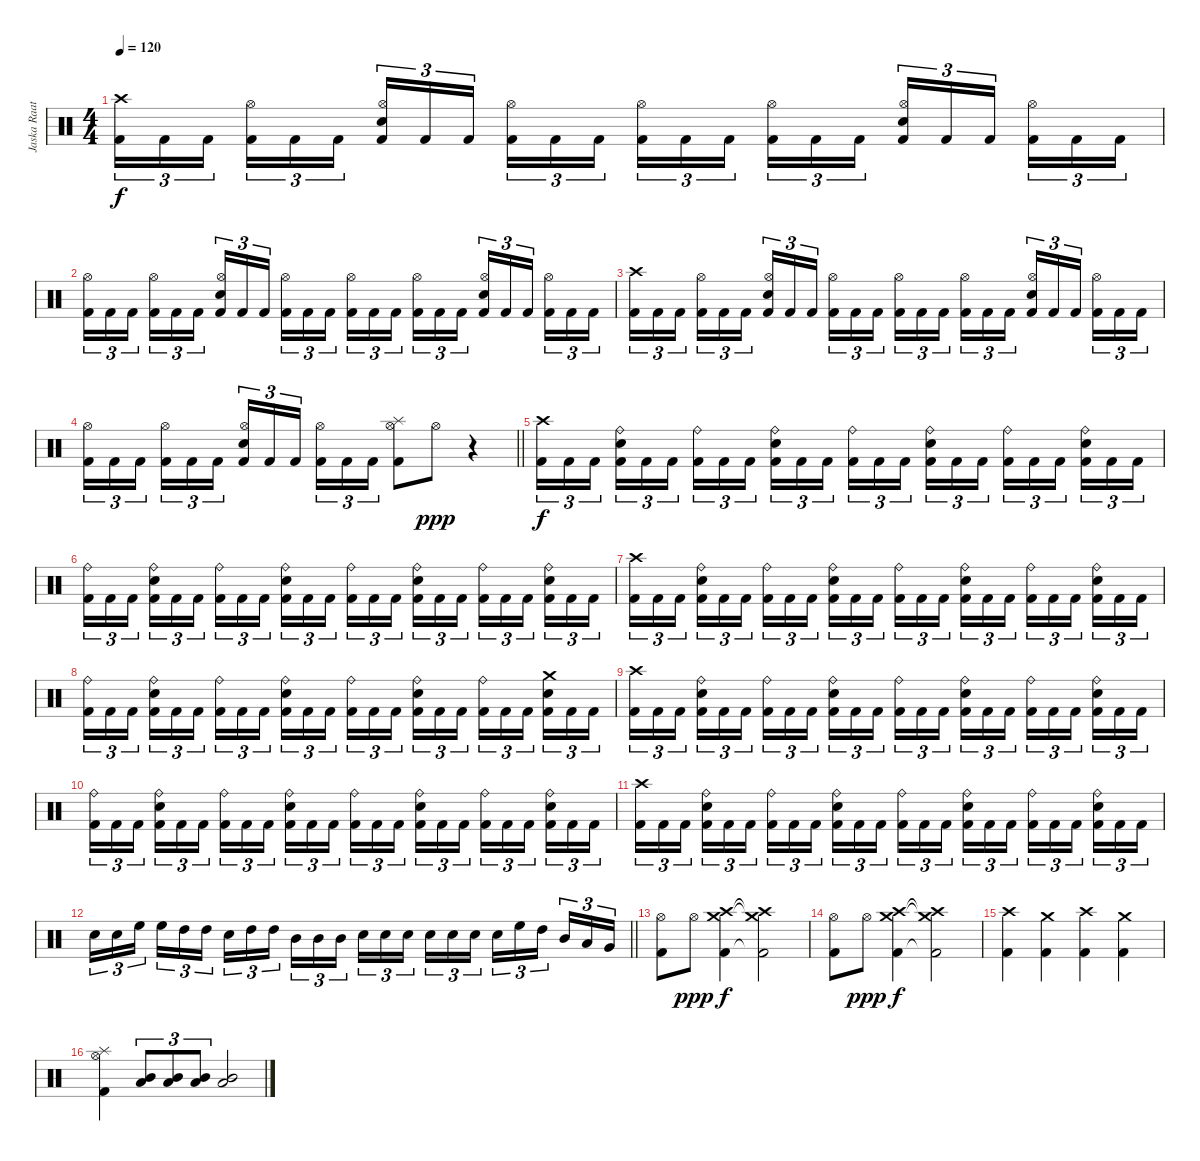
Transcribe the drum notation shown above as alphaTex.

\track ("Jaska Raatikainen" "Jaska Raat") {instrument percussion}
\staff {score}
\articulation defaults
\ts (4 4)
\tempo 120
\clef neutral
\ks c
("Crash high (hit)" "Kick (hit) 2").16{tu (3 2) dy f} "Kick (hit) 2".16{tu (3 2)} "Kick (hit) 2".16{tu (3 2)} ("Hi-Hat (open)" "Kick (hit) 2").16{tu (3 2)} "Kick (hit) 2".16{tu (3 2)} "Kick (hit) 2".16{tu (3 2)} ("Hi-Hat (open)" "Electric Snare (hit)" "Kick (hit) 2").16{tu (3 2)} "Kick (hit) 2".16{tu (3 2)} "Kick (hit) 2".16{tu (3 2)} ("Hi-Hat (open)" "Kick (hit) 2").16{tu (3 2)} "Kick (hit) 2".16{tu (3 2)} "Kick (hit) 2".16{tu (3 2)} ("Hi-Hat (open)" "Kick (hit) 2").16{tu (3 2)} "Kick (hit) 2".16{tu (3 2)} "Kick (hit) 2".16{tu (3 2)} ("Hi-Hat (open)" "Kick (hit) 2").16{tu (3 2)} "Kick (hit) 2".16{tu (3 2)} "Kick (hit) 2".16{tu (3 2)} ("Hi-Hat (open)" "Electric Snare (hit)" "Kick (hit) 2").16{tu (3 2)} "Kick (hit) 2".16{tu (3 2)} "Kick (hit) 2".16{tu (3 2)} ("Hi-Hat (open)" "Kick (hit) 2").16{tu (3 2)} "Kick (hit) 2".16{tu (3 2)} "Kick (hit) 2".16{tu (3 2)} |
("Hi-Hat (open)" "Kick (hit) 2").16{tu (3 2)} "Kick (hit) 2".16{tu (3 2)} "Kick (hit) 2".16{tu (3 2)} ("Hi-Hat (open)" "Kick (hit) 2").16{tu (3 2)} "Kick (hit) 2".16{tu (3 2)} "Kick (hit) 2".16{tu (3 2)} ("Hi-Hat (open)" "Electric Snare (hit)" "Kick (hit) 2").16{tu (3 2)} "Kick (hit) 2".16{tu (3 2)} "Kick (hit) 2".16{tu (3 2)} ("Hi-Hat (open)" "Kick (hit) 2").16{tu (3 2)} "Kick (hit) 2".16{tu (3 2)} "Kick (hit) 2".16{tu (3 2)} ("Hi-Hat (open)" "Kick (hit) 2").16{tu (3 2)} "Kick (hit) 2".16{tu (3 2)} "Kick (hit) 2".16{tu (3 2)} ("Hi-Hat (open)" "Kick (hit) 2").16{tu (3 2)} "Kick (hit) 2".16{tu (3 2)} "Kick (hit) 2".16{tu (3 2)} ("Hi-Hat (open)" "Electric Snare (hit)" "Kick (hit) 2").16{tu (3 2)} "Kick (hit) 2".16{tu (3 2)} "Kick (hit) 2".16{tu (3 2)} ("Hi-Hat (open)" "Kick (hit) 2").16{tu (3 2)} "Kick (hit) 2".16{tu (3 2)} "Kick (hit) 2".16{tu (3 2)} |
("Crash high (hit)" "Kick (hit) 2").16{tu (3 2)} "Kick (hit) 2".16{tu (3 2)} "Kick (hit) 2".16{tu (3 2)} ("Hi-Hat (open)" "Kick (hit) 2").16{tu (3 2)} "Kick (hit) 2".16{tu (3 2)} "Kick (hit) 2".16{tu (3 2)} ("Hi-Hat (open)" "Electric Snare (hit)" "Kick (hit) 2").16{tu (3 2)} "Kick (hit) 2".16{tu (3 2)} "Kick (hit) 2".16{tu (3 2)} ("Hi-Hat (open)" "Kick (hit) 2").16{tu (3 2)} "Kick (hit) 2".16{tu (3 2)} "Kick (hit) 2".16{tu (3 2)} ("Hi-Hat (open)" "Kick (hit) 2").16{tu (3 2)} "Kick (hit) 2".16{tu (3 2)} "Kick (hit) 2".16{tu (3 2)} ("Hi-Hat (open)" "Kick (hit) 2").16{tu (3 2)} "Kick (hit) 2".16{tu (3 2)} "Kick (hit) 2".16{tu (3 2)} ("Hi-Hat (open)" "Electric Snare (hit)" "Kick (hit) 2").16{tu (3 2)} "Kick (hit) 2".16{tu (3 2)} "Kick (hit) 2".16{tu (3 2)} ("Hi-Hat (open)" "Kick (hit) 2").16{tu (3 2)} "Kick (hit) 2".16{tu (3 2)} "Kick (hit) 2".16{tu (3 2)} |
\barLineRight lightlight
("Hi-Hat (open)" "Kick (hit) 2").16{tu (3 2)} "Kick (hit) 2".16{tu (3 2)} "Kick (hit) 2".16{tu (3 2)} ("Hi-Hat (open)" "Kick (hit) 2").16{tu (3 2)} "Kick (hit) 2".16{tu (3 2)} "Kick (hit) 2".16{tu (3 2)} ("Hi-Hat (open)" "Electric Snare (hit)" "Kick (hit) 2").16{tu (3 2)} "Kick (hit) 2".16{tu (3 2)} "Kick (hit) 2".16{tu (3 2)} ("Hi-Hat (open)" "Kick (hit) 2").16{tu (3 2)} "Kick (hit) 2".16{tu (3 2)} "Kick (hit) 2".16{tu (3 2)} ("Splash (hit)" "Hi-Hat (open)" "Kick (hit) 2").8 "Hi-Hat (open)".8{dy ppp} r.4 |
("Crash high (hit)" "Kick (hit) 2").16{tu (3 2) dy f} "Kick (hit) 2".16{tu (3 2)} "Kick (hit) 2".16{tu (3 2)} ("Ride (bell)" "Electric Snare (hit)" "Kick (hit) 2").16{tu (3 2)} "Kick (hit) 2".16{tu (3 2)} "Kick (hit) 2".16{tu (3 2)} ("Ride (bell)" "Kick (hit) 2").16{tu (3 2)} "Kick (hit) 2".16{tu (3 2)} "Kick (hit) 2".16{tu (3 2)} ("Ride (bell)" "Electric Snare (hit)" "Kick (hit) 2").16{tu (3 2)} "Kick (hit) 2".16{tu (3 2)} "Kick (hit) 2".16{tu (3 2)} ("Ride (bell)" "Kick (hit) 2").16{tu (3 2)} "Kick (hit) 2".16{tu (3 2)} "Kick (hit) 2".16{tu (3 2)} ("Ride (bell)" "Electric Snare (hit)" "Kick (hit) 2").16{tu (3 2)} "Kick (hit) 2".16{tu (3 2)} "Kick (hit) 2".16{tu (3 2)} ("Ride (bell)" "Kick (hit) 2").16{tu (3 2)} "Kick (hit) 2".16{tu (3 2)} "Kick (hit) 2".16{tu (3 2)} ("Ride (bell)" "Electric Snare (hit)" "Kick (hit) 2").16{tu (3 2)} "Kick (hit) 2".16{tu (3 2)} "Kick (hit) 2".16{tu (3 2)} |
("Ride (bell)" "Kick (hit) 2").16{tu (3 2)} "Kick (hit) 2".16{tu (3 2)} "Kick (hit) 2".16{tu (3 2)} ("Ride (bell)" "Electric Snare (hit)" "Kick (hit) 2").16{tu (3 2)} "Kick (hit) 2".16{tu (3 2)} "Kick (hit) 2".16{tu (3 2)} ("Ride (bell)" "Kick (hit) 2").16{tu (3 2)} "Kick (hit) 2".16{tu (3 2)} "Kick (hit) 2".16{tu (3 2)} ("Ride (bell)" "Electric Snare (hit)" "Kick (hit) 2").16{tu (3 2)} "Kick (hit) 2".16{tu (3 2)} "Kick (hit) 2".16{tu (3 2)} ("Ride (bell)" "Kick (hit) 2").16{tu (3 2)} "Kick (hit) 2".16{tu (3 2)} "Kick (hit) 2".16{tu (3 2)} ("Ride (bell)" "Electric Snare (hit)" "Kick (hit) 2").16{tu (3 2)} "Kick (hit) 2".16{tu (3 2)} "Kick (hit) 2".16{tu (3 2)} ("Ride (bell)" "Kick (hit) 2").16{tu (3 2)} "Kick (hit) 2".16{tu (3 2)} "Kick (hit) 2".16{tu (3 2)} ("Ride (bell)" "Electric Snare (hit)" "Kick (hit) 2").16{tu (3 2)} "Kick (hit) 2".16{tu (3 2)} "Kick (hit) 2".16{tu (3 2)} |
("Crash high (hit)" "Kick (hit) 2").16{tu (3 2)} "Kick (hit) 2".16{tu (3 2)} "Kick (hit) 2".16{tu (3 2)} ("Ride (bell)" "Electric Snare (hit)" "Kick (hit) 2").16{tu (3 2)} "Kick (hit) 2".16{tu (3 2)} "Kick (hit) 2".16{tu (3 2)} ("Ride (bell)" "Kick (hit) 2").16{tu (3 2)} "Kick (hit) 2".16{tu (3 2)} "Kick (hit) 2".16{tu (3 2)} ("Ride (bell)" "Electric Snare (hit)" "Kick (hit) 2").16{tu (3 2)} "Kick (hit) 2".16{tu (3 2)} "Kick (hit) 2".16{tu (3 2)} ("Ride (bell)" "Kick (hit) 2").16{tu (3 2)} "Kick (hit) 2".16{tu (3 2)} "Kick (hit) 2".16{tu (3 2)} ("Ride (bell)" "Electric Snare (hit)" "Kick (hit) 2").16{tu (3 2)} "Kick (hit) 2".16{tu (3 2)} "Kick (hit) 2".16{tu (3 2)} ("Ride (bell)" "Kick (hit) 2").16{tu (3 2)} "Kick (hit) 2".16{tu (3 2)} "Kick (hit) 2".16{tu (3 2)} ("Ride (bell)" "Electric Snare (hit)" "Kick (hit) 2").16{tu (3 2)} "Kick (hit) 2".16{tu (3 2)} "Kick (hit) 2".16{tu (3 2)} |
("Ride (bell)" "Kick (hit) 2").16{tu (3 2)} "Kick (hit) 2".16{tu (3 2)} "Kick (hit) 2".16{tu (3 2)} ("Ride (bell)" "Electric Snare (hit)" "Kick (hit) 2").16{tu (3 2)} "Kick (hit) 2".16{tu (3 2)} "Kick (hit) 2".16{tu (3 2)} ("Ride (bell)" "Kick (hit) 2").16{tu (3 2)} "Kick (hit) 2".16{tu (3 2)} "Kick (hit) 2".16{tu (3 2)} ("Ride (bell)" "Electric Snare (hit)" "Kick (hit) 2").16{tu (3 2)} "Kick (hit) 2".16{tu (3 2)} "Kick (hit) 2".16{tu (3 2)} ("Ride (bell)" "Kick (hit) 2").16{tu (3 2)} "Kick (hit) 2".16{tu (3 2)} "Kick (hit) 2".16{tu (3 2)} ("Ride (bell)" "Electric Snare (hit)" "Kick (hit) 2").16{tu (3 2)} "Kick (hit) 2".16{tu (3 2)} "Kick (hit) 2".16{tu (3 2)} ("Ride (bell)" "Kick (hit) 2").16{tu (3 2)} "Kick (hit) 2".16{tu (3 2)} "Kick (hit) 2".16{tu (3 2)} ("Crash medium (hit)" "Electric Snare (hit)" "Kick (hit) 2").16{tu (3 2)} "Kick (hit) 2".16{tu (3 2)} "Kick (hit) 2".16{tu (3 2)} |
("Crash high (hit)" "Kick (hit) 2").16{tu (3 2)} "Kick (hit) 2".16{tu (3 2)} "Kick (hit) 2".16{tu (3 2)} ("Ride (bell)" "Electric Snare (hit)" "Kick (hit) 2").16{tu (3 2)} "Kick (hit) 2".16{tu (3 2)} "Kick (hit) 2".16{tu (3 2)} ("Ride (bell)" "Kick (hit) 2").16{tu (3 2)} "Kick (hit) 2".16{tu (3 2)} "Kick (hit) 2".16{tu (3 2)} ("Ride (bell)" "Electric Snare (hit)" "Kick (hit) 2").16{tu (3 2)} "Kick (hit) 2".16{tu (3 2)} "Kick (hit) 2".16{tu (3 2)} ("Ride (bell)" "Kick (hit) 2").16{tu (3 2)} "Kick (hit) 2".16{tu (3 2)} "Kick (hit) 2".16{tu (3 2)} ("Ride (bell)" "Electric Snare (hit)" "Kick (hit) 2").16{tu (3 2)} "Kick (hit) 2".16{tu (3 2)} "Kick (hit) 2".16{tu (3 2)} ("Ride (bell)" "Kick (hit) 2").16{tu (3 2)} "Kick (hit) 2".16{tu (3 2)} "Kick (hit) 2".16{tu (3 2)} ("Ride (bell)" "Electric Snare (hit)" "Kick (hit) 2").16{tu (3 2)} "Kick (hit) 2".16{tu (3 2)} "Kick (hit) 2".16{tu (3 2)} |
("Ride (bell)" "Kick (hit) 2").16{tu (3 2)} "Kick (hit) 2".16{tu (3 2)} "Kick (hit) 2".16{tu (3 2)} ("Ride (bell)" "Electric Snare (hit)" "Kick (hit) 2").16{tu (3 2)} "Kick (hit) 2".16{tu (3 2)} "Kick (hit) 2".16{tu (3 2)} ("Ride (bell)" "Kick (hit) 2").16{tu (3 2)} "Kick (hit) 2".16{tu (3 2)} "Kick (hit) 2".16{tu (3 2)} ("Ride (bell)" "Electric Snare (hit)" "Kick (hit) 2").16{tu (3 2)} "Kick (hit) 2".16{tu (3 2)} "Kick (hit) 2".16{tu (3 2)} ("Ride (bell)" "Kick (hit) 2").16{tu (3 2)} "Kick (hit) 2".16{tu (3 2)} "Kick (hit) 2".16{tu (3 2)} ("Ride (bell)" "Electric Snare (hit)" "Kick (hit) 2").16{tu (3 2)} "Kick (hit) 2".16{tu (3 2)} "Kick (hit) 2".16{tu (3 2)} ("Ride (bell)" "Kick (hit) 2").16{tu (3 2)} "Kick (hit) 2".16{tu (3 2)} "Kick (hit) 2".16{tu (3 2)} ("Ride (bell)" "Electric Snare (hit)" "Kick (hit) 2").16{tu (3 2)} "Kick (hit) 2".16{tu (3 2)} "Kick (hit) 2".16{tu (3 2)} |
("Crash high (hit)" "Kick (hit) 2").16{tu (3 2)} "Kick (hit) 2".16{tu (3 2)} "Kick (hit) 2".16{tu (3 2)} ("Ride (bell)" "Electric Snare (hit)" "Kick (hit) 2").16{tu (3 2)} "Kick (hit) 2".16{tu (3 2)} "Kick (hit) 2".16{tu (3 2)} ("Ride (bell)" "Kick (hit) 2").16{tu (3 2)} "Kick (hit) 2".16{tu (3 2)} "Kick (hit) 2".16{tu (3 2)} ("Ride (bell)" "Electric Snare (hit)" "Kick (hit) 2").16{tu (3 2)} "Kick (hit) 2".16{tu (3 2)} "Kick (hit) 2".16{tu (3 2)} ("Ride (bell)" "Kick (hit) 2").16{tu (3 2)} "Kick (hit) 2".16{tu (3 2)} "Kick (hit) 2".16{tu (3 2)} ("Ride (bell)" "Electric Snare (hit)" "Kick (hit) 2").16{tu (3 2)} "Kick (hit) 2".16{tu (3 2)} "Kick (hit) 2".16{tu (3 2)} ("Ride (bell)" "Kick (hit) 2").16{tu (3 2)} "Kick (hit) 2".16{tu (3 2)} "Kick (hit) 2".16{tu (3 2)} ("Ride (bell)" "Electric Snare (hit)" "Kick (hit) 2").16{tu (3 2)} "Kick (hit) 2".16{tu (3 2)} "Kick (hit) 2".16{tu (3 2)} |
\barLineRight lightlight "Electric Snare (hit)".16{tu (3 2)} "Electric Snare (hit)".16{tu (3 2)} "High Floor Tom (hit)".16{tu (3 2)} "High Floor Tom (hit)".16{tu (3 2)} "High Tom (hit)".16{tu (3 2)} "High Tom (hit)".16{tu (3 2)} "Electric Snare (hit)".16{tu (3 2)} "High Tom (hit)".16{tu (3 2)} "High Tom (hit)".16{tu (3 2)} "Mid Tom (hit)".16{tu (3 2)} "Mid Tom (hit)".16{tu (3 2)} "Mid Tom (hit)".16{tu (3 2)} "Electric Snare (hit)".16{tu (3 2)} "Electric Snare (hit)".16{tu (3 2)} "Electric Snare (hit)".16{tu (3 2)} "Electric Snare (hit)".16{tu (3 2)} "Electric Snare (hit)".16{tu (3 2)} "Electric Snare (hit)".16{tu (3 2)} "Electric Snare (hit)".16{tu (3 2)} "High Floor Tom (hit)".16{tu (3 2)} "High Tom (hit)".16{tu (3 2)} "Mid Tom (hit)".16{tu (3 2)} "Low Tom (hit)".16{tu (3 2)} "Very Low Tom (hit)".16{tu (3 2)}
|
("Hi-Hat (open)" "Kick (hit) 2").8 "Hi-Hat (open)".8{dy ppp} ("Crash high (hit)" "Crash medium (hit)" "Kick (hit) 2").4{dy f} ("Crash high (hit)"{t} "Crash medium (hit)"{t} "Kick (hit) 2"{t}).2 |
("Hi-Hat (open)" "Kick (hit) 2").8 "Hi-Hat (open)".8{dy ppp} ("Crash high (hit)" "Crash medium (hit)" "Kick (hit) 2").4{dy f} ("Crash high (hit)"{t} "Crash medium (hit)"{t} "Kick (hit) 2"{t}).2 |
("Crash high (hit)" "Kick (hit) 2").4 ("Crash medium (hit)" "Kick (hit) 2").4 ("Crash high (hit)" "Kick (hit) 2").4 ("Crash medium (hit)" "Kick (hit) 2").4 |
("Hi-Hat (open)" "Splash (hit)" "Kick (hit) 2").4 ("Mid Tom (hit)" "Low Tom (hit)").8{tu (3 2)} ("Mid Tom (hit)" "Low Tom (hit)").8{tu (3 2)} ("Mid Tom (hit)" "Low Tom (hit)").8{tu (3 2)} ("Mid Tom (hit)" "Low Tom (hit)").2
